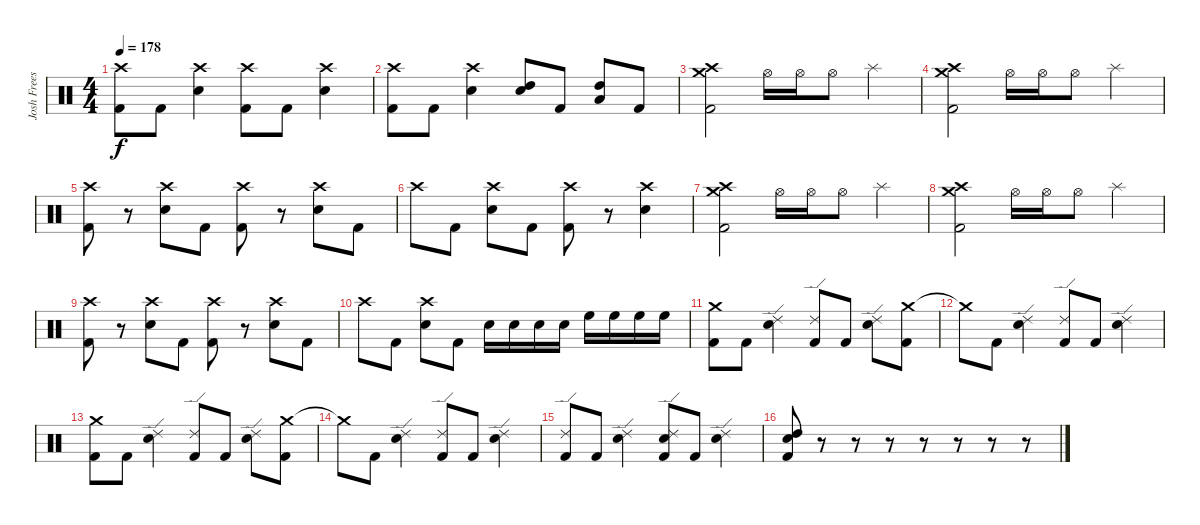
\track ("Josh Freese" "Josh Frees") {instrument percussion}
\staff {score}
\articulation defaults
\ts (4 4)
\tempo 178
\clef neutral
\ks c
("Crash high (hit)" "Kick (hit) 2").8{dy f} "Kick (hit) 2".8 ("Crash high (hit)" "Electric Snare (hit)").4 ("Crash high (hit)" "Kick (hit) 2").8 "Kick (hit) 2".8 ("Crash high (hit)" "Electric Snare (hit)").4 |
("Crash high (hit)" "Kick (hit) 2").8 "Kick (hit) 2".8 ("Crash high (hit)" "Electric Snare (hit)").4 ("High Tom (hit)" "Electric Snare (hit)").8 "Kick (hit) 2".8 ("Low Floor Tom (hit)" "High Tom (hit)").8 "Kick (hit) 2".8 |
("Crash medium (hit)" "Crash high (hit)" "Kick (hit) 2").2 "Hi-Hat (open)".16 "Hi-Hat (open)".16 "Hi-Hat (open)".8 "Splash (hit)".4 |
("Crash medium (hit)" "Crash high (hit)" "Kick (hit) 2").2 "Hi-Hat (open)".16 "Hi-Hat (open)".16 "Hi-Hat (open)".8 "Splash (hit)".4 |
("Crash high (hit)" "Kick (hit) 2").8 r.8 ("Crash high (hit)" "Electric Snare (hit)").8 "Kick (hit) 2".8 ("Crash high (hit)" "Kick (hit) 2").8 r.8 ("Crash high (hit)" "Electric Snare (hit)").8 "Kick (hit) 2".8 |
"Crash high (hit)".8 "Kick (hit) 2".8 ("Crash high (hit)" "Electric Snare (hit)").8 "Kick (hit) 2".8 ("Crash high (hit)" "Kick (hit) 2").8 r.8 ("Crash high (hit)" "Electric Snare (hit)").4 |
("Crash medium (hit)" "Crash high (hit)" "Kick (hit) 2").2 "Hi-Hat (open)".16 "Hi-Hat (open)".16 "Hi-Hat (open)".8 "Splash (hit)".4 |
("Crash medium (hit)" "Crash high (hit)" "Kick (hit) 2").2 "Hi-Hat (open)".16 "Hi-Hat (open)".16 "Hi-Hat (open)".8 "Splash (hit)".4 |
("Crash high (hit)" "Kick (hit) 2").8 r.8 ("Crash high (hit)" "Electric Snare (hit)").8 "Kick (hit) 2".8 ("Crash high (hit)" "Kick (hit) 2").8 r.8 ("Crash high (hit)" "Electric Snare (hit)").8 "Kick (hit) 2".8 |
"Crash high (hit)".8 "Kick (hit) 2".8 ("Crash high (hit)" "Electric Snare (hit)").8 "Kick (hit) 2".8 "Electric Snare (hit)".16 "Electric Snare (hit)".16 "Electric Snare (hit)".16 "Electric Snare (hit)".16 "High Floor Tom (hit)".16 "High Floor Tom (hit)".16 "High Floor Tom (hit)".16 "High Floor Tom (hit)".16 |
("Crash medium (hit)" "Kick (hit) 2").8 "Kick (hit) 2".8 ("Ride (edge) 2" "Electric Snare (hit)").4 ("Ride (edge) 2" "Kick (hit) 2").8 "Kick (hit) 2".8 ("Ride (edge) 2" "Electric Snare (hit)").8 ("Crash medium (hit)" "Kick (hit) 2").8 |
"Crash medium (hit)"{t}.8 "Kick (hit) 2".8 ("Ride (edge) 2" "Electric Snare (hit)").4 ("Ride (edge) 2" "Kick (hit) 2").8 "Kick (hit) 2".8 ("Ride (edge) 2" "Electric Snare (hit)").4 |
("Crash medium (hit)" "Kick (hit) 2").8 "Kick (hit) 2".8 ("Ride (edge) 2" "Electric Snare (hit)").4 ("Ride (edge) 2" "Kick (hit) 2").8 "Kick (hit) 2".8 ("Ride (edge) 2" "Electric Snare (hit)").8 ("Crash medium (hit)" "Kick (hit) 2").8 |
"Crash medium (hit)"{t}.8 "Kick (hit) 2".8 ("Ride (edge) 2" "Electric Snare (hit)").4 ("Ride (edge) 2" "Kick (hit) 2").8 "Kick (hit) 2".8 ("Ride (edge) 2" "Electric Snare (hit)").4 |
("Ride (edge) 2" "Kick (hit) 2").8 "Kick (hit) 2".8 ("Ride (edge) 2" "Electric Snare (hit)").4 ("Ride (edge) 2" "Electric Snare (hit)" "Kick (hit) 2").8 "Kick (hit) 2".8 ("Ride (edge) 2" "Electric Snare (hit)").4 |
("High Tom (hit)" "Electric Snare (hit)" "Kick (hit) 2").8 r.8 r.8 r.8 r.8 r.8 r.8 r.8
